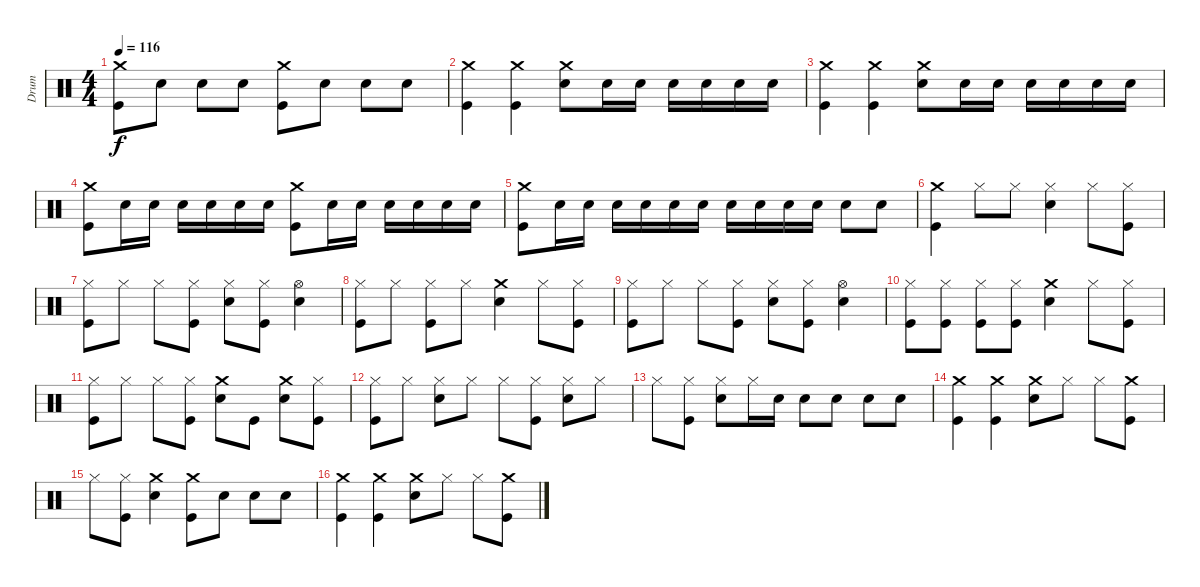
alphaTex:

\track ("Drum" "Drum") {instrument percussion}
\staff {score}
\articulation defaults
\ts (4 4)
\tempo 116
\clef neutral
\ks c
("Kick (hit)" "Crash medium (hit)").8{dy f} "Electric Snare (hit)".8 "Electric Snare (hit)".8 "Electric Snare (hit)".8 ("Kick (hit)" "Crash medium (hit)").8 "Electric Snare (hit)".8 "Electric Snare (hit)".8 "Electric Snare (hit)".8 |
("Kick (hit)" "Crash medium (hit)").4 ("Kick (hit)" "Crash medium (hit)").4 ("Electric Snare (hit)" "Crash medium (hit)").8 "Electric Snare (hit)".16 "Electric Snare (hit)".16 "Electric Snare (hit)".16 "Electric Snare (hit)".16 "Electric Snare (hit)".16 "Electric Snare (hit)".16 |
("Kick (hit)" "Crash medium (hit)").4 ("Kick (hit)" "Crash medium (hit)").4 ("Electric Snare (hit)" "Crash medium (hit)").8 "Electric Snare (hit)".16 "Electric Snare (hit)".16 "Electric Snare (hit)".16 "Electric Snare (hit)".16 "Electric Snare (hit)".16 "Electric Snare (hit)".16 |
("Kick (hit)" "Crash medium (hit)").8 "Electric Snare (hit)".16 "Electric Snare (hit)".16 "Electric Snare (hit)".16 "Electric Snare (hit)".16 "Electric Snare (hit)".16 "Electric Snare (hit)".16 ("Kick (hit)" "Crash medium (hit)").8 "Electric Snare (hit)".16 "Electric Snare (hit)".16 "Electric Snare (hit)".16 "Electric Snare (hit)".16 "Electric Snare (hit)".16 "Electric Snare (hit)".16 |
("Kick (hit)" "Crash medium (hit)").8 "Electric Snare (hit)".16 "Electric Snare (hit)".16 "Electric Snare (hit)".16 "Electric Snare (hit)".16 "Electric Snare (hit)".16 "Electric Snare (hit)".16 "Electric Snare (hit)".16 "Electric Snare (hit)".16 "Electric Snare (hit)".16 "Electric Snare (hit)".16 "Electric Snare (hit)".8 "Electric Snare (hit)".8 |
("Kick (hit)" "Crash medium (hit)").4 "Hi-Hat (closed)".8 "Hi-Hat (closed)".8 ("Electric Snare (hit)" "Hi-Hat (closed)").4 "Hi-Hat (closed)".8 ("Kick (hit)" "Hi-Hat (closed)").8 |
("Kick (hit)" "Hi-Hat (closed)").8 "Hi-Hat (closed)".8 "Hi-Hat (closed)".8 ("Kick (hit)" "Hi-Hat (closed)").8 ("Electric Snare (hit)" "Hi-Hat (closed)").8 ("Kick (hit)" "Hi-Hat (closed)").8 ("Electric Snare (hit)" "Hi-Hat (open)").4 |
("Kick (hit)" "Hi-Hat (closed)").8 "Hi-Hat (closed)".8 ("Kick (hit)" "Hi-Hat (closed)").8 "Hi-Hat (closed)".8 ("Electric Snare (hit)" "Crash medium (hit)").4 "Hi-Hat (closed)".8 ("Kick (hit)" "Hi-Hat (closed)").8 |
("Kick (hit)" "Hi-Hat (closed)").8 "Hi-Hat (closed)".8 "Hi-Hat (closed)".8 ("Kick (hit)" "Hi-Hat (closed)").8 ("Electric Snare (hit)" "Hi-Hat (closed)").8 ("Kick (hit)" "Hi-Hat (closed)").8 ("Electric Snare (hit)" "Hi-Hat (open)").4 |
("Kick (hit)" "Hi-Hat (closed)").8 ("Kick (hit)" "Hi-Hat (closed)").8 ("Kick (hit)" "Hi-Hat (closed)").8 ("Kick (hit)" "Hi-Hat (closed)").8 ("Electric Snare (hit)" "Crash medium (hit)").4 "Hi-Hat (closed)".8 ("Kick (hit)" "Hi-Hat (closed)").8 |
("Kick (hit)" "Hi-Hat (closed)").8 "Hi-Hat (closed)".8 "Hi-Hat (closed)".8 ("Kick (hit)" "Hi-Hat (closed)").8 ("Electric Snare (hit)" "Crash medium (hit)").8 "Kick (hit)".8 ("Electric Snare (hit)" "Crash medium (hit)").8 ("Kick (hit)" "Hi-Hat (closed)").8 |
("Kick (hit)" "Hi-Hat (closed)").8 "Hi-Hat (closed)".8 ("Electric Snare (hit)" "Hi-Hat (closed)").8 "Hi-Hat (closed)".8 "Hi-Hat (closed)".8 ("Kick (hit)" "Hi-Hat (closed)").8 ("Electric Snare (hit)" "Hi-Hat (closed)").8 "Hi-Hat (closed)".8 |
"Hi-Hat (closed)".8 ("Kick (hit)" "Hi-Hat (closed)").8 ("Electric Snare (hit)" "Hi-Hat (closed)").8 "Hi-Hat (closed)".16 "Electric Snare (hit)".16 "Electric Snare (hit)".8 "Electric Snare (hit)".8 "Electric Snare (hit)".8 "Electric Snare (hit)".8 |
("Kick (hit)" "Crash medium (hit)").4 ("Kick (hit)" "Crash medium (hit)").4 ("Electric Snare (hit)" "Crash medium (hit)").8 "Hi-Hat (closed)".8 "Hi-Hat (closed)".8 ("Kick (hit)" "Crash medium (hit)").8 |
"Hi-Hat (closed)".8 ("Kick (hit)" "Hi-Hat (closed)").8 ("Electric Snare (hit)" "Crash medium (hit)").4 ("Kick (hit)" "Crash medium (hit)").8 "Electric Snare (hit)".8 "Electric Snare (hit)".8 "Electric Snare (hit)".8 |
("Kick (hit)" "Crash medium (hit)").4 ("Kick (hit)" "Crash medium (hit)").4 ("Electric Snare (hit)" "Crash medium (hit)").8 "Hi-Hat (closed)".8 "Hi-Hat (closed)".8 ("Kick (hit)" "Crash medium (hit)").8
